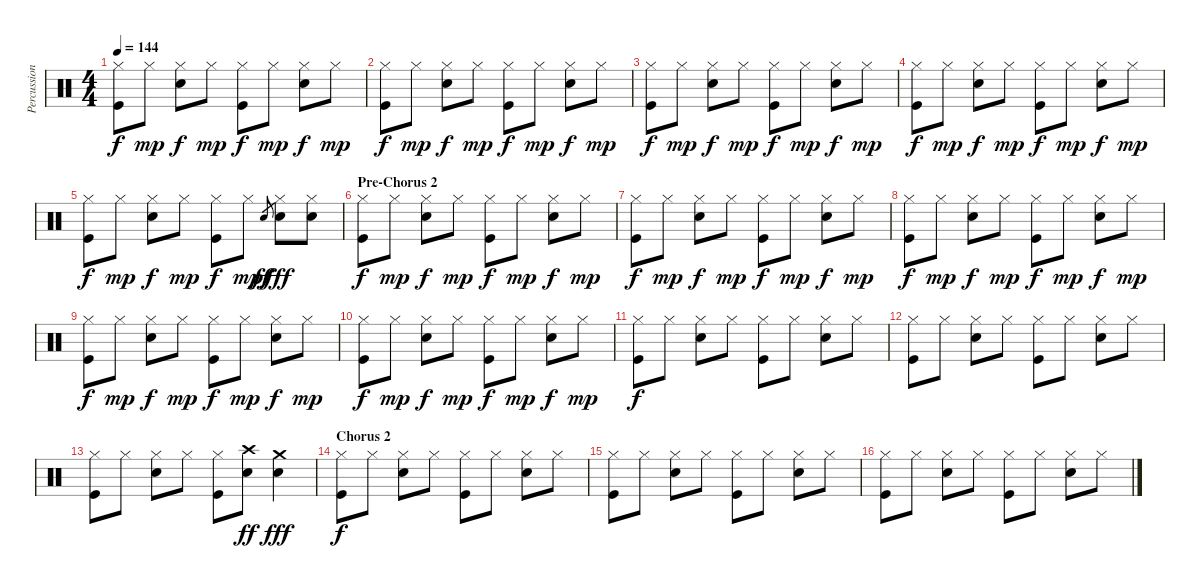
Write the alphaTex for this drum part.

\track ("Percussions" "Percussion") {instrument percussion}
\staff {score}
\articulation defaults
\ts (4 4)
\tempo 144
\clef neutral
\ks c
("Hi-Hat (closed)" "Kick (hit)").8{dy f} "Hi-Hat (closed)".8{dy mp} ("Hi-Hat (closed)" "Snare (hit) 2").8{dy f} "Hi-Hat (closed)".8{dy mp} ("Hi-Hat (closed)" "Kick (hit)").8{dy f} "Hi-Hat (closed)".8{dy mp} ("Hi-Hat (closed)" "Snare (hit) 2").8{dy f} "Hi-Hat (closed)".8{dy mp} |
("Hi-Hat (closed)" "Kick (hit)").8{dy f} "Hi-Hat (closed)".8{dy mp} ("Hi-Hat (closed)" "Snare (hit) 2").8{dy f} "Hi-Hat (closed)".8{dy mp} ("Hi-Hat (closed)" "Kick (hit)").8{dy f} "Hi-Hat (closed)".8{dy mp} ("Hi-Hat (closed)" "Snare (hit) 2").8{dy f} "Hi-Hat (closed)".8{dy mp} |
("Hi-Hat (closed)" "Kick (hit)").8{dy f} "Hi-Hat (closed)".8{dy mp} ("Hi-Hat (closed)" "Snare (hit) 2").8{dy f} "Hi-Hat (closed)".8{dy mp} ("Hi-Hat (closed)" "Kick (hit)").8{dy f} "Hi-Hat (closed)".8{dy mp} ("Hi-Hat (closed)" "Snare (hit) 2").8{dy f} "Hi-Hat (closed)".8{dy mp} |
("Hi-Hat (closed)" "Kick (hit)").8{dy f} "Hi-Hat (closed)".8{dy mp} ("Hi-Hat (closed)" "Snare (hit) 2").8{dy f} "Hi-Hat (closed)".8{dy mp} ("Hi-Hat (closed)" "Kick (hit)").8{dy f} "Hi-Hat (closed)".8{dy mp} ("Hi-Hat (closed)" "Snare (hit) 2").8{dy f} "Hi-Hat (closed)".8{dy mp} |
("Hi-Hat (closed)" "Kick (hit)").8{dy f} "Hi-Hat (closed)".8{dy mp} ("Hi-Hat (closed)" "Snare (hit) 2").8{dy f} "Hi-Hat (closed)".8{dy mp} ("Hi-Hat (closed)" "Kick (hit)").8{dy f} "Hi-Hat (closed)".8{dy mp} "Snare (hit) 2".8{gr dy ff} ("Hi-Hat (closed)" "Snare (hit) 2").8{dy fff} ("Hi-Hat (closed)" "Snare (hit) 2").8 |
\section ("" "Pre-Chorus 2")
("Hi-Hat (closed)" "Kick (hit)").8{dy f} "Hi-Hat (closed)".8{dy mp} ("Hi-Hat (closed)" "Snare (hit) 2").8{dy f} "Hi-Hat (closed)".8{dy mp} ("Hi-Hat (closed)" "Kick (hit)").8{dy f} "Hi-Hat (closed)".8{dy mp} ("Hi-Hat (closed)" "Snare (hit) 2").8{dy f} "Hi-Hat (closed)".8{dy mp} |
("Hi-Hat (closed)" "Kick (hit)").8{dy f} "Hi-Hat (closed)".8{dy mp} ("Hi-Hat (closed)" "Snare (hit) 2").8{dy f} "Hi-Hat (closed)".8{dy mp} ("Hi-Hat (closed)" "Kick (hit)").8{dy f} "Hi-Hat (closed)".8{dy mp} ("Hi-Hat (closed)" "Snare (hit) 2").8{dy f} "Hi-Hat (closed)".8{dy mp} |
("Hi-Hat (closed)" "Kick (hit)").8{dy f} "Hi-Hat (closed)".8{dy mp} ("Hi-Hat (closed)" "Snare (hit) 2").8{dy f} "Hi-Hat (closed)".8{dy mp} ("Hi-Hat (closed)" "Kick (hit)").8{dy f} "Hi-Hat (closed)".8{dy mp} ("Hi-Hat (closed)" "Snare (hit) 2").8{dy f} "Hi-Hat (closed)".8{dy mp} |
("Hi-Hat (closed)" "Kick (hit)").8{dy f} "Hi-Hat (closed)".8{dy mp} ("Hi-Hat (closed)" "Snare (hit) 2").8{dy f} "Hi-Hat (closed)".8{dy mp} ("Hi-Hat (closed)" "Kick (hit)").8{dy f} "Hi-Hat (closed)".8{dy mp} ("Hi-Hat (closed)" "Snare (hit) 2").8{dy f} "Hi-Hat (closed)".8{dy mp} |
("Hi-Hat (closed)" "Kick (hit)").8{dy f} "Hi-Hat (closed)".8{dy mp} ("Hi-Hat (closed)" "Snare (hit) 2").8{dy f} "Hi-Hat (closed)".8{dy mp} ("Hi-Hat (closed)" "Kick (hit)").8{dy f} "Hi-Hat (closed)".8{dy mp} ("Hi-Hat (closed)" "Snare (hit) 2").8{dy f} "Hi-Hat (closed)".8{dy mp} |
("Hi-Hat (closed)" "Kick (hit)").8{dy f} "Hi-Hat (closed)".8 ("Hi-Hat (closed)" "Snare (hit) 2").8 "Hi-Hat (closed)".8 ("Hi-Hat (closed)" "Kick (hit)").8 "Hi-Hat (closed)".8 ("Hi-Hat (closed)" "Snare (hit) 2").8 "Hi-Hat (closed)".8 |
("Hi-Hat (closed)" "Kick (hit)").8 "Hi-Hat (closed)".8 ("Hi-Hat (closed)" "Snare (hit) 2").8 "Hi-Hat (closed)".8 ("Hi-Hat (closed)" "Kick (hit)").8 "Hi-Hat (closed)".8 ("Hi-Hat (closed)" "Snare (hit) 2").8 "Hi-Hat (closed)".8 |
("Hi-Hat (closed)" "Kick (hit)").8 "Hi-Hat (closed)".8 ("Hi-Hat (closed)" "Snare (hit) 2").8 "Hi-Hat (closed)".8 ("Hi-Hat (closed)" "Kick (hit)").8 ("Crash high (hit)" "Snare (hit) 2").8{dy ff} ("Crash medium (hit)" "Snare (hit) 2").4{dy fff} |
\section ("" "Chorus 2")
("Hi-Hat (closed)" "Kick (hit)").8{dy f} "Hi-Hat (closed)".8 ("Hi-Hat (closed)" "Snare (hit) 2").8 "Hi-Hat (closed)".8 ("Hi-Hat (closed)" "Kick (hit)").8 "Hi-Hat (closed)".8 ("Hi-Hat (closed)" "Snare (hit) 2").8 "Hi-Hat (closed)".8 |
("Hi-Hat (closed)" "Kick (hit)").8 "Hi-Hat (closed)".8 ("Hi-Hat (closed)" "Snare (hit) 2").8 "Hi-Hat (closed)".8 ("Hi-Hat (closed)" "Kick (hit)").8 "Hi-Hat (closed)".8 ("Hi-Hat (closed)" "Snare (hit) 2").8 "Hi-Hat (closed)".8 |
("Hi-Hat (closed)" "Kick (hit)").8 "Hi-Hat (closed)".8 ("Hi-Hat (closed)" "Snare (hit) 2").8 "Hi-Hat (closed)".8 ("Hi-Hat (closed)" "Kick (hit)").8 "Hi-Hat (closed)".8 ("Hi-Hat (closed)" "Snare (hit) 2").8 "Hi-Hat (closed)".8
